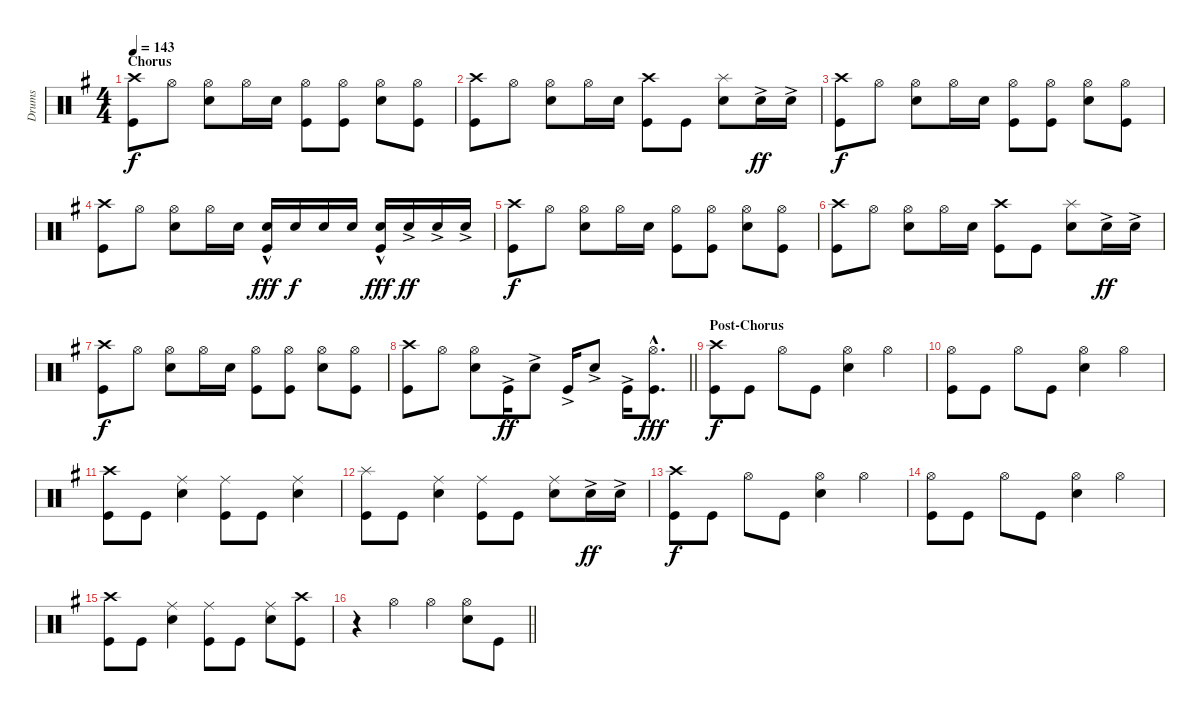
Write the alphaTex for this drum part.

\track ("Drums" "Drums") {instrument percussion}
\staff {score}
\articulation defaults
\ts (4 4)
\section ("" "Chorus")
\tempo 143
\clef neutral
\ks eminor
("Crash high (hit)" "Kick (hit)").8{dy f} "Hi-Hat (open)".8 ("Hi-Hat (open)" "Snare (hit) 2").8 "Hi-Hat (open)".16 "Snare (hit) 2".16 ("Hi-Hat (open)" "Kick (hit)").8 ("Hi-Hat (open)" "Kick (hit)").8 ("Hi-Hat (open)" "Snare (hit) 2").8 ("Hi-Hat (open)" "Kick (hit)").8 |
("Crash high (hit)" "Kick (hit)").8 "Hi-Hat (open)".8 ("Hi-Hat (open)" "Snare (hit) 2").8 "Hi-Hat (open)".16 "Snare (hit) 2".16 ("Crash high (hit)" "Kick (hit)").8 "Kick (hit)".8 ("Splash (hit)" "Snare (hit) 2").8 "Snare (hit) 2"{ac}.16{dy ff} "Snare (hit) 2"{ac}.16 |
("Crash high (hit)" "Kick (hit)").8{dy f} "Hi-Hat (open)".8 ("Hi-Hat (open)" "Snare (hit) 2").8 "Hi-Hat (open)".16 "Snare (hit) 2".16 ("Hi-Hat (open)" "Kick (hit)").8 ("Hi-Hat (open)" "Kick (hit)").8 ("Hi-Hat (open)" "Snare (hit) 2").8 ("Hi-Hat (open)" "Kick (hit)").8 |
("Crash high (hit)" "Kick (hit)").8 "Hi-Hat (open)".8 ("Hi-Hat (open)" "Snare (hit) 2").8 "Hi-Hat (open)".16 "Snare (hit) 2".16 ("Snare (hit) 2"{hac} "Kick (hit)").16{dy fff} "Snare (hit) 2".16{dy f} "Snare (hit) 2".16 "Snare (hit) 2".16 ("Snare (hit) 2"{hac} "Kick (hit)").16{dy fff} "Snare (hit) 2"{ac}.16{dy ff} "Snare (hit) 2"{ac}.16 "Snare (hit) 2"{ac}.16 |
("Crash high (hit)" "Kick (hit)").8{dy f} "Hi-Hat (open)".8 ("Hi-Hat (open)" "Snare (hit) 2").8 "Hi-Hat (open)".16 "Snare (hit) 2".16 ("Hi-Hat (open)" "Kick (hit)").8 ("Hi-Hat (open)" "Kick (hit)").8 ("Hi-Hat (open)" "Snare (hit) 2").8 ("Hi-Hat (open)" "Kick (hit)").8 |
("Crash high (hit)" "Kick (hit)").8 "Hi-Hat (open)".8 ("Hi-Hat (open)" "Snare (hit) 2").8 "Hi-Hat (open)".16 "Snare (hit) 2".16 ("Crash high (hit)" "Kick (hit)").8 "Kick (hit)".8 ("Splash (hit)" "Snare (hit) 2").8 "Snare (hit) 2"{ac}.16{dy ff} "Snare (hit) 2"{ac}.16 |
("Crash high (hit)" "Kick (hit)").8{dy f} "Hi-Hat (open)".8 ("Hi-Hat (open)" "Snare (hit) 2").8 "Hi-Hat (open)".16 "Snare (hit) 2".16 ("Hi-Hat (open)" "Kick (hit)").8 ("Hi-Hat (open)" "Kick (hit)").8 ("Hi-Hat (open)" "Snare (hit) 2").8 ("Hi-Hat (open)" "Kick (hit)").8 |
\barLineRight lightlight
("Crash high (hit)" "Kick (hit)").8 "Hi-Hat (open)".8 ("Hi-Hat (open)" "Snare (hit) 2").8 "Kick (hit)"{ac}.16{dy ff} "Snare (hit) 2"{ac}.8 "Kick (hit)"{ac}.16 "Snare (hit) 2"{ac}.8 "Kick (hit)"{ac}.16 ("Hi-Hat (open)"{hac} "Kick (hit)"{hac}).8{d dy fff} |
\section ("" "Post-Chorus")
("Crash high (hit)" "Kick (hit)").8{dy f} "Kick (hit)".8 "Hi-Hat (open)".8 "Kick (hit)".8 ("Hi-Hat (open)" "Snare (hit) 2").4 "Hi-Hat (open)".4 |
("Hi-Hat (open)" "Kick (hit)").8 "Kick (hit)".8 "Hi-Hat (open)".8 "Kick (hit)".8 ("Hi-Hat (open)" "Snare (hit) 2").4 "Hi-Hat (open)".4 |
("Crash high (hit)" "Kick (hit)").8 "Kick (hit)".8 ("Ride (middle)" "Snare (hit) 2").4 ("Ride (middle)" "Kick (hit)").8 "Kick (hit)".8 ("Ride (middle)" "Snare (hit) 2").4 |
("Splash (hit)" "Kick (hit)").8 "Kick (hit)".8 ("Ride (middle)" "Snare (hit) 2").4 ("Ride (middle)" "Kick (hit)").8 "Kick (hit)".8 ("Ride (middle)" "Snare (hit) 2").8 "Snare (hit) 2"{ac}.16{dy ff} "Snare (hit) 2"{ac}.16 |
("Crash high (hit)" "Kick (hit)").8{dy f} "Kick (hit)".8 "Hi-Hat (open)".8 "Kick (hit)".8 ("Hi-Hat (open)" "Snare (hit) 2").4 "Hi-Hat (open)".4 |
("Hi-Hat (open)" "Kick (hit)").8 "Kick (hit)".8 "Hi-Hat (open)".8 "Kick (hit)".8 ("Hi-Hat (open)" "Snare (hit) 2").4 "Hi-Hat (open)".4 |
("Crash high (hit)" "Kick (hit)").8 "Kick (hit)".8 ("Ride (middle)" "Snare (hit) 2").4 ("Ride (middle)" "Kick (hit)").8 "Kick (hit)".8 ("Ride (middle)" "Snare (hit) 2").8 ("Crash high (hit)" "Kick (hit)").8 |
\barLineRight lightlight
r.4 "Hi-Hat (open)".4 "Hi-Hat (open)".4 ("Hi-Hat (open)" "Snare (hit) 2").8 "Kick (hit)".8
